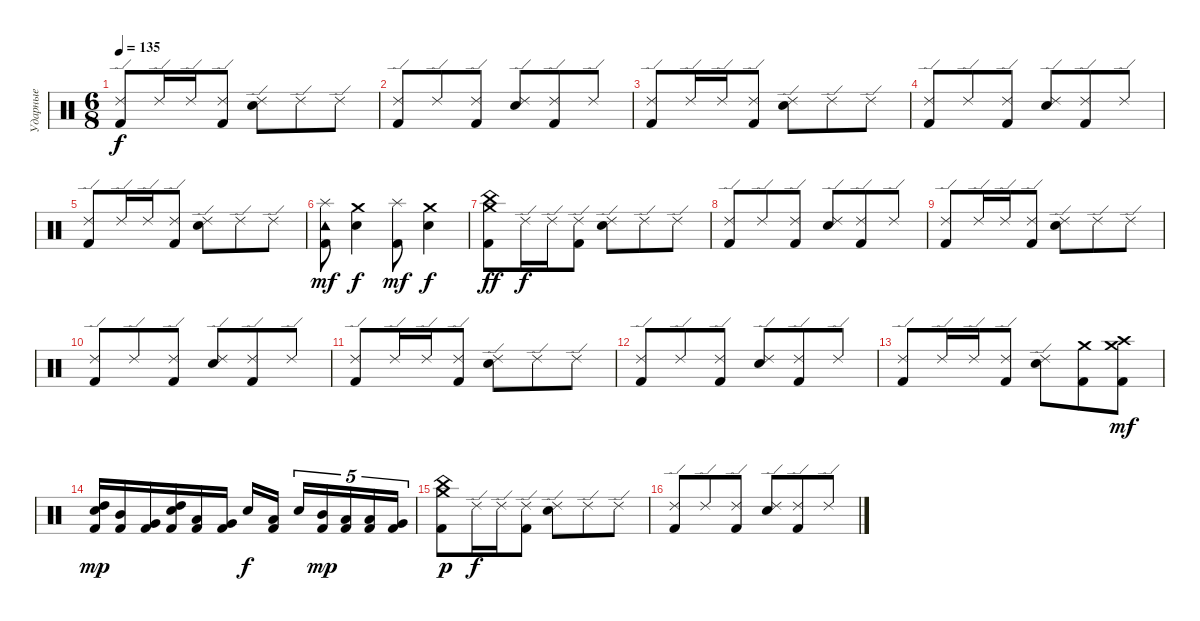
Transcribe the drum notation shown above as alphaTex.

\track ("Ударные" "Ударные") {instrument percussion}
\staff {score}
\articulation defaults
\ts (6 8)
\tempo 135
\clef neutral
\ks c
("Ride (edge) 2" "Kick (hit) 2").8{dy f} "Ride (edge) 2".16 "Ride (edge) 2".16 ("Ride (edge) 2" "Kick (hit) 2").8 ("Ride (edge) 2" "Electric Snare (hit)").8 "Ride (edge) 2".8 "Ride (edge) 2".8 |
("Ride (edge) 2" "Kick (hit) 2").8 "Ride (edge) 2".8 ("Ride (edge) 2" "Kick (hit) 2").8 ("Ride (edge) 2" "Electric Snare (hit)").8 ("Ride (edge) 2" "Kick (hit) 2").8 "Ride (edge) 2".8 |
("Ride (edge) 2" "Kick (hit) 2").8 "Ride (edge) 2".16 "Ride (edge) 2".16 ("Ride (edge) 2" "Kick (hit) 2").8 ("Ride (edge) 2" "Electric Snare (hit)").8 "Ride (edge) 2".8 "Ride (edge) 2".8 |
("Ride (edge) 2" "Kick (hit) 2").8 "Ride (edge) 2".8 ("Ride (edge) 2" "Kick (hit) 2").8 ("Ride (edge) 2" "Electric Snare (hit)").8 ("Ride (edge) 2" "Kick (hit) 2").8 "Ride (edge) 2".8 |
("Ride (edge) 2" "Kick (hit) 2").8 "Ride (edge) 2".16 "Ride (edge) 2".16 ("Ride (edge) 2" "Kick (hit) 2").8 ("Ride (edge) 2" "Electric Snare (hit)").8 "Ride (edge) 2".8 "Ride (edge) 2".8 |
("Kick (hit) 2" "Tambourine (hit)" "Splash (hit)").8{dy mf} ("Electric Snare (hit)" "Crash medium (hit)").4{dy f} ("Kick (hit) 2" "Splash (hit)").8{dy mf} ("Electric Snare (hit)" "Crash medium (hit)").4{dy f} |
("Crash medium (hit)" "China (hit)" "Kick (hit) 2").8{dy ff} "Ride (edge) 2".16{dy f} "Ride (edge) 2".16 ("Ride (edge) 2" "Kick (hit) 2").8 ("Ride (edge) 2" "Electric Snare (hit)").8 "Ride (edge) 2".8 "Ride (edge) 2".8 |
("Ride (edge) 2" "Kick (hit) 2").8 "Ride (edge) 2".8 ("Ride (edge) 2" "Kick (hit) 2").8 ("Ride (edge) 2" "Electric Snare (hit)").8 ("Ride (edge) 2" "Kick (hit) 2").8 "Ride (edge) 2".8 |
("Ride (edge) 2" "Kick (hit) 2").8 "Ride (edge) 2".16 "Ride (edge) 2".16 ("Ride (edge) 2" "Kick (hit) 2").8 ("Ride (edge) 2" "Electric Snare (hit)").8 "Ride (edge) 2".8 "Ride (edge) 2".8 |
("Ride (edge) 2" "Kick (hit) 2").8 "Ride (edge) 2".8 ("Ride (edge) 2" "Kick (hit) 2").8 ("Ride (edge) 2" "Electric Snare (hit)").8 ("Ride (edge) 2" "Kick (hit) 2").8 "Ride (edge) 2".8 |
("Ride (edge) 2" "Kick (hit) 2").8 "Ride (edge) 2".16 "Ride (edge) 2".16 ("Ride (edge) 2" "Kick (hit) 2").8 ("Ride (edge) 2" "Electric Snare (hit)").8 "Ride (edge) 2".8 "Ride (edge) 2".8 |
("Ride (edge) 2" "Kick (hit) 2").8 "Ride (edge) 2".8 ("Ride (edge) 2" "Kick (hit) 2").8 ("Ride (edge) 2" "Electric Snare (hit)").8 ("Ride (edge) 2" "Kick (hit) 2").8 "Ride (edge) 2".8 |
("Ride (edge) 2" "Kick (hit) 2").8 "Ride (edge) 2".16 "Ride (edge) 2".16 ("Ride (edge) 2" "Kick (hit) 2").8 ("Ride (edge) 2" "Electric Snare (hit)").8 ("Crash medium (hit)" "Kick (hit) 2").8 ("Crash high (hit)" "Crash medium (hit)" "Kick (hit) 2").8{dy mf} |
("Electric Snare (hit)" "High Tom (hit)" "Kick (hit) 2").16{dy mp} ("Mid Tom (hit)" "Kick (hit) 2").16 ("Very Low Tom (hit)" "Kick (hit) 2").16 ("Electric Snare (hit)" "High Tom (hit)" "Kick (hit) 2").16 ("Low Tom (hit)" "Kick (hit) 2").16 ("Very Low Tom (hit)" "Kick (hit) 2").16 "Electric Snare (hit)".16{dy f} ("Low Tom (hit)" "Kick (hit) 2").16 "Electric Snare (hit)".16{tu (5 4)} ("Mid Tom (hit)" "Kick (hit) 2").16{tu (5 4) dy mp} ("Low Tom (hit)" "Kick (hit) 2").16{tu (5 4)} ("Low Tom (hit)" "Kick (hit) 2").16{tu (5 4)} ("Very Low Tom (hit)" "Kick (hit) 2").16{tu (5 4)} |
\section ("" "")
("Crash medium (hit)" "China (hit)" "Kick (hit) 2").8{dy p} "Ride (edge) 2".16{dy f} "Ride (edge) 2".16 ("Ride (edge) 2" "Kick (hit) 2").8 ("Ride (edge) 2" "Electric Snare (hit)").8 "Ride (edge) 2".8 "Ride (edge) 2".8 |
("Ride (edge) 2" "Kick (hit) 2").8 "Ride (edge) 2".8 ("Ride (edge) 2" "Kick (hit) 2").8 ("Ride (edge) 2" "Electric Snare (hit)").8 ("Ride (edge) 2" "Kick (hit) 2").8 "Ride (edge) 2".8
